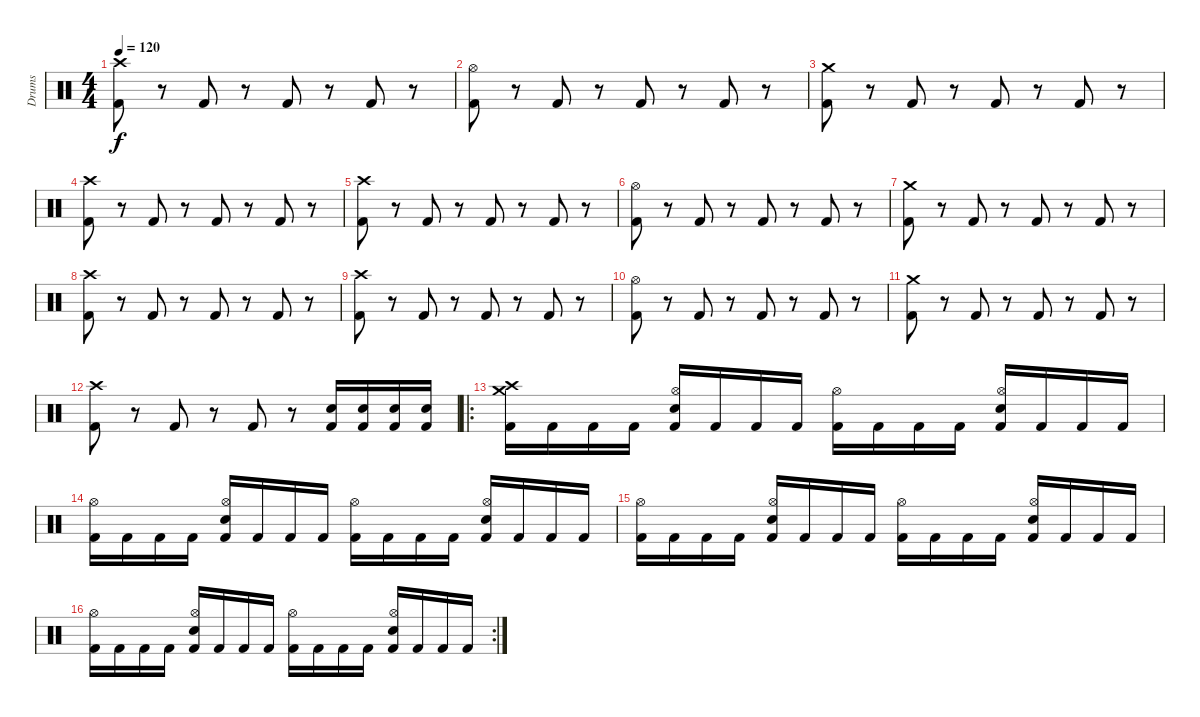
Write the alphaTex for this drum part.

\track ("Drums" "Drums") {instrument percussion}
\staff {score}
\articulation defaults
\ts (4 4)
\tempo 120
\clef neutral
\ks c
("Crash high (hit)" "Kick (hit) 2").8{dy f} r.8 "Kick (hit) 2".8 r.8 "Kick (hit) 2".8 r.8 "Kick (hit) 2".8 r.8 |
("Hi-Hat (open)" "Kick (hit) 2").8 r.8 "Kick (hit) 2".8 r.8 "Kick (hit) 2".8 r.8 "Kick (hit) 2".8 r.8 |
("Crash medium (hit)" "Kick (hit) 2").8 r.8 "Kick (hit) 2".8 r.8 "Kick (hit) 2".8 r.8 "Kick (hit) 2".8 r.8 |
("Crash high (hit)" "Kick (hit) 2").8 r.8 "Kick (hit) 2".8 r.8 "Kick (hit) 2".8 r.8 "Kick (hit) 2".8 r.8 |
("Crash high (hit)" "Kick (hit) 2").8 r.8 "Kick (hit) 2".8 r.8 "Kick (hit) 2".8 r.8 "Kick (hit) 2".8 r.8 |
("Hi-Hat (open)" "Kick (hit) 2").8 r.8 "Kick (hit) 2".8 r.8 "Kick (hit) 2".8 r.8 "Kick (hit) 2".8 r.8 |
("Crash medium (hit)" "Kick (hit) 2").8 r.8 "Kick (hit) 2".8 r.8 "Kick (hit) 2".8 r.8 "Kick (hit) 2".8 r.8 |
("Crash high (hit)" "Kick (hit) 2").8 r.8 "Kick (hit) 2".8 r.8 "Kick (hit) 2".8 r.8 "Kick (hit) 2".8 r.8 |
("Crash high (hit)" "Kick (hit) 2").8 r.8 "Kick (hit) 2".8 r.8 "Kick (hit) 2".8 r.8 "Kick (hit) 2".8 r.8 |
("Hi-Hat (open)" "Kick (hit) 2").8 r.8 "Kick (hit) 2".8 r.8 "Kick (hit) 2".8 r.8 "Kick (hit) 2".8 r.8 |
("Crash medium (hit)" "Kick (hit) 2").8 r.8 "Kick (hit) 2".8 r.8 "Kick (hit) 2".8 r.8 "Kick (hit) 2".8 r.8 |
("Crash high (hit)" "Kick (hit) 2").8 r.8 "Kick (hit) 2".8 r.8 "Kick (hit) 2".8 r.8 ("Electric Snare (hit)" "Kick (hit) 2").16 ("Electric Snare (hit)" "Kick (hit) 2").16 ("Electric Snare (hit)" "Kick (hit) 2").16 ("Electric Snare (hit)" "Kick (hit) 2").16 |
\ro
("Crash high (hit)" "Crash medium (hit)" "Kick (hit) 2").16 "Kick (hit) 2".16 "Kick (hit) 2".16 "Kick (hit) 2".16 ("Hi-Hat (open)" "Electric Snare (hit)" "Kick (hit) 2").16 "Kick (hit) 2".16 "Kick (hit) 2".16 "Kick (hit) 2".16 ("Hi-Hat (open)" "Kick (hit) 2").16 "Kick (hit) 2".16 "Kick (hit) 2".16 "Kick (hit) 2".16 ("Hi-Hat (open)" "Electric Snare (hit)" "Kick (hit) 2").16 "Kick (hit) 2".16 "Kick (hit) 2".16 "Kick (hit) 2".16 |
("Hi-Hat (open)" "Kick (hit) 2").16 "Kick (hit) 2".16 "Kick (hit) 2".16 "Kick (hit) 2".16 ("Hi-Hat (open)" "Electric Snare (hit)" "Kick (hit) 2").16 "Kick (hit) 2".16 "Kick (hit) 2".16 "Kick (hit) 2".16 ("Hi-Hat (open)" "Kick (hit) 2").16 "Kick (hit) 2".16 "Kick (hit) 2".16 "Kick (hit) 2".16 ("Hi-Hat (open)" "Electric Snare (hit)" "Kick (hit) 2").16 "Kick (hit) 2".16 "Kick (hit) 2".16 "Kick (hit) 2".16 |
("Hi-Hat (open)" "Kick (hit) 2").16 "Kick (hit) 2".16 "Kick (hit) 2".16 "Kick (hit) 2".16 ("Hi-Hat (open)" "Electric Snare (hit)" "Kick (hit) 2").16 "Kick (hit) 2".16 "Kick (hit) 2".16 "Kick (hit) 2".16 ("Hi-Hat (open)" "Kick (hit) 2").16 "Kick (hit) 2".16 "Kick (hit) 2".16 "Kick (hit) 2".16 ("Hi-Hat (open)" "Electric Snare (hit)" "Kick (hit) 2").16 "Kick (hit) 2".16 "Kick (hit) 2".16 "Kick (hit) 2".16 |
\rc 2
("Hi-Hat (open)" "Kick (hit) 2").16 "Kick (hit) 2".16 "Kick (hit) 2".16 "Kick (hit) 2".16 ("Hi-Hat (open)" "Electric Snare (hit)" "Kick (hit) 2").16 "Kick (hit) 2".16 "Kick (hit) 2".16 "Kick (hit) 2".16 ("Hi-Hat (open)" "Kick (hit) 2").16 "Kick (hit) 2".16 "Kick (hit) 2".16 "Kick (hit) 2".16 ("Hi-Hat (open)" "Electric Snare (hit)" "Kick (hit) 2").16 "Kick (hit) 2".16 "Kick (hit) 2".16 "Kick (hit) 2".16
